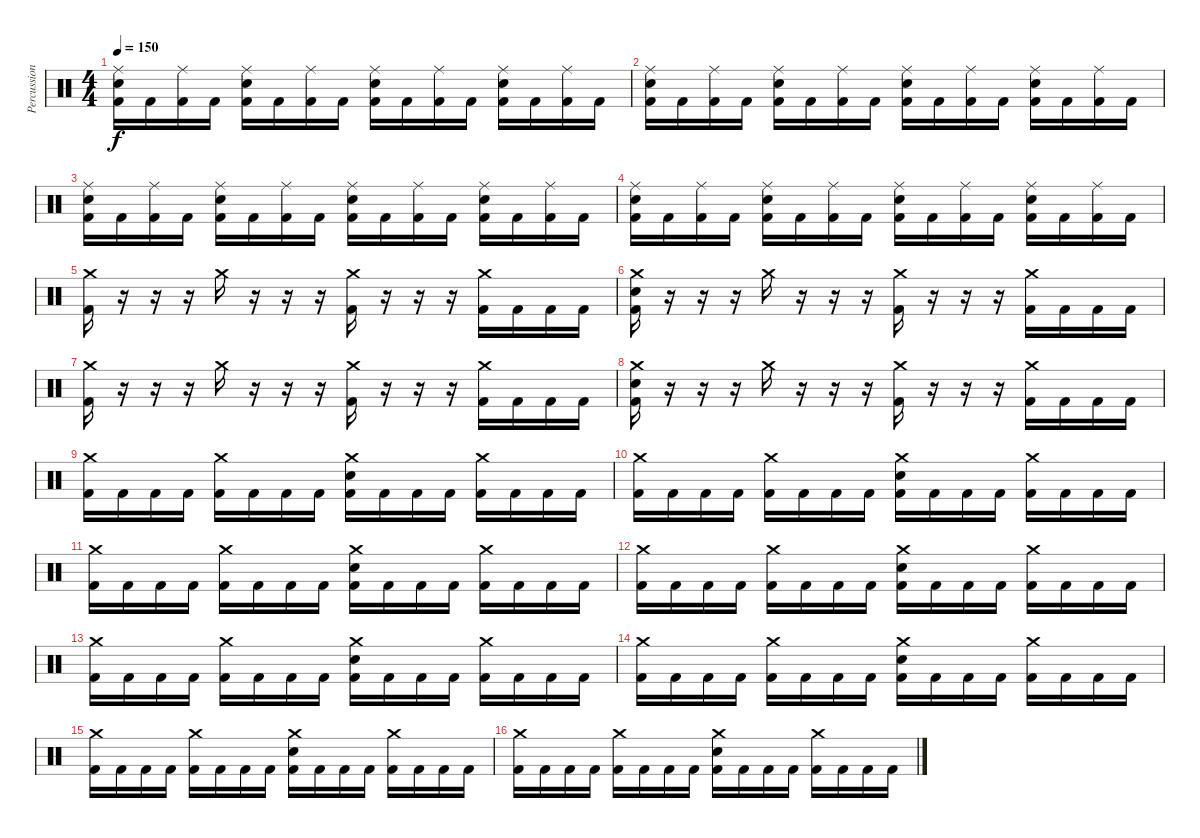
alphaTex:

\track ("Percussion" "Percussion") {instrument percussion}
\staff {score}
\articulation defaults
\ts (4 4)
\tempo 150
\clef neutral
\ks c
("Ride (middle)" "Electric Snare (hit)" "Kick (hit) 2").16{dy f} "Kick (hit) 2".16 ("Ride (middle)" "Kick (hit) 2").16 "Kick (hit) 2".16 ("Ride (middle)" "Electric Snare (hit)" "Kick (hit) 2").16 "Kick (hit) 2".16 ("Ride (middle)" "Kick (hit) 2").16 "Kick (hit) 2".16 ("Ride (middle)" "Electric Snare (hit)" "Kick (hit) 2").16 "Kick (hit) 2".16 ("Ride (middle)" "Kick (hit) 2").16 "Kick (hit) 2".16 ("Ride (middle)" "Electric Snare (hit)" "Kick (hit) 2").16 "Kick (hit) 2".16 ("Ride (middle)" "Kick (hit) 2").16 "Kick (hit) 2".16 |
("Ride (middle)" "Electric Snare (hit)" "Kick (hit) 2").16 "Kick (hit) 2".16 ("Ride (middle)" "Kick (hit) 2").16 "Kick (hit) 2".16 ("Ride (middle)" "Electric Snare (hit)" "Kick (hit) 2").16 "Kick (hit) 2".16 ("Ride (middle)" "Kick (hit) 2").16 "Kick (hit) 2".16 ("Ride (middle)" "Electric Snare (hit)" "Kick (hit) 2").16 "Kick (hit) 2".16 ("Ride (middle)" "Kick (hit) 2").16 "Kick (hit) 2".16 ("Ride (middle)" "Electric Snare (hit)" "Kick (hit) 2").16 "Kick (hit) 2".16 ("Ride (middle)" "Kick (hit) 2").16 "Kick (hit) 2".16 |
("Ride (middle)" "Electric Snare (hit)" "Kick (hit) 2").16 "Kick (hit) 2".16 ("Ride (middle)" "Kick (hit) 2").16 "Kick (hit) 2".16 ("Ride (middle)" "Electric Snare (hit)" "Kick (hit) 2").16 "Kick (hit) 2".16 ("Ride (middle)" "Kick (hit) 2").16 "Kick (hit) 2".16 ("Ride (middle)" "Electric Snare (hit)" "Kick (hit) 2").16 "Kick (hit) 2".16 ("Ride (middle)" "Kick (hit) 2").16 "Kick (hit) 2".16 ("Ride (middle)" "Electric Snare (hit)" "Kick (hit) 2").16 "Kick (hit) 2".16 ("Ride (middle)" "Kick (hit) 2").16 "Kick (hit) 2".16 |
("Ride (middle)" "Electric Snare (hit)" "Kick (hit) 2").16 "Kick (hit) 2".16 ("Ride (middle)" "Kick (hit) 2").16 "Kick (hit) 2".16 ("Ride (middle)" "Electric Snare (hit)" "Kick (hit) 2").16 "Kick (hit) 2".16 ("Ride (middle)" "Kick (hit) 2").16 "Kick (hit) 2".16 ("Ride (middle)" "Electric Snare (hit)" "Kick (hit) 2").16 "Kick (hit) 2".16 ("Ride (middle)" "Kick (hit) 2").16 "Kick (hit) 2".16 ("Ride (middle)" "Electric Snare (hit)" "Kick (hit) 2").16 "Kick (hit) 2".16 ("Ride (middle)" "Kick (hit) 2").16 "Kick (hit) 2".16 |
("Crash medium (hit)" "Kick (hit) 2").16 r.16 r.16 r.16 "Crash medium (hit)".16 r.16 r.16 r.16 ("Crash medium (hit)" "Kick (hit) 2").16 r.16 r.16 r.16 ("Crash medium (hit)" "Kick (hit) 2").16 "Kick (hit) 2".16 "Kick (hit) 2".16 "Kick (hit) 2".16 |
("Crash medium (hit)" "Electric Snare (hit)" "Kick (hit) 2").16 r.16 r.16 r.16 "Crash medium (hit)".16 r.16 r.16 r.16 ("Crash medium (hit)" "Kick (hit) 2").16 r.16 r.16 r.16 ("Crash medium (hit)" "Kick (hit) 2").16 "Kick (hit) 2".16 "Kick (hit) 2".16 "Kick (hit) 2".16 |
("Crash medium (hit)" "Kick (hit) 2").16 r.16 r.16 r.16 "Crash medium (hit)".16 r.16 r.16 r.16 ("Crash medium (hit)" "Kick (hit) 2").16 r.16 r.16 r.16 ("Crash medium (hit)" "Kick (hit) 2").16 "Kick (hit) 2".16 "Kick (hit) 2".16 "Kick (hit) 2".16 |
("Crash medium (hit)" "Electric Snare (hit)" "Kick (hit) 2").16 r.16 r.16 r.16 "Crash medium (hit)".16 r.16 r.16 r.16 ("Crash medium (hit)" "Kick (hit) 2").16 r.16 r.16 r.16 ("Crash medium (hit)" "Kick (hit) 2").16 "Kick (hit) 2".16 "Kick (hit) 2".16 "Kick (hit) 2".16 |
("Crash medium (hit)" "Kick (hit) 2").16 "Kick (hit) 2".16 "Kick (hit) 2".16 "Kick (hit) 2".16 ("Crash medium (hit)" "Kick (hit) 2").16 "Kick (hit) 2".16 "Kick (hit) 2".16 "Kick (hit) 2".16 ("Crash medium (hit)" "Electric Snare (hit)" "Kick (hit) 2").16 "Kick (hit) 2".16 "Kick (hit) 2".16 "Kick (hit) 2".16 ("Crash medium (hit)" "Kick (hit) 2").16 "Kick (hit) 2".16 "Kick (hit) 2".16 "Kick (hit) 2".16 |
("Crash medium (hit)" "Kick (hit) 2").16 "Kick (hit) 2".16 "Kick (hit) 2".16 "Kick (hit) 2".16 ("Crash medium (hit)" "Kick (hit) 2").16 "Kick (hit) 2".16 "Kick (hit) 2".16 "Kick (hit) 2".16 ("Crash medium (hit)" "Electric Snare (hit)" "Kick (hit) 2").16 "Kick (hit) 2".16 "Kick (hit) 2".16 "Kick (hit) 2".16 ("Crash medium (hit)" "Kick (hit) 2").16 "Kick (hit) 2".16 "Kick (hit) 2".16 "Kick (hit) 2".16 |
("Crash medium (hit)" "Kick (hit) 2").16 "Kick (hit) 2".16 "Kick (hit) 2".16 "Kick (hit) 2".16 ("Crash medium (hit)" "Kick (hit) 2").16 "Kick (hit) 2".16 "Kick (hit) 2".16 "Kick (hit) 2".16 ("Crash medium (hit)" "Electric Snare (hit)" "Kick (hit) 2").16 "Kick (hit) 2".16 "Kick (hit) 2".16 "Kick (hit) 2".16 ("Crash medium (hit)" "Kick (hit) 2").16 "Kick (hit) 2".16 "Kick (hit) 2".16 "Kick (hit) 2".16 |
("Crash medium (hit)" "Kick (hit) 2").16 "Kick (hit) 2".16 "Kick (hit) 2".16 "Kick (hit) 2".16 ("Crash medium (hit)" "Kick (hit) 2").16 "Kick (hit) 2".16 "Kick (hit) 2".16 "Kick (hit) 2".16 ("Crash medium (hit)" "Electric Snare (hit)" "Kick (hit) 2").16 "Kick (hit) 2".16 "Kick (hit) 2".16 "Kick (hit) 2".16 ("Crash medium (hit)" "Kick (hit) 2").16 "Kick (hit) 2".16 "Kick (hit) 2".16 "Kick (hit) 2".16 |
("Crash medium (hit)" "Kick (hit) 2").16 "Kick (hit) 2".16 "Kick (hit) 2".16 "Kick (hit) 2".16 ("Crash medium (hit)" "Kick (hit) 2").16 "Kick (hit) 2".16 "Kick (hit) 2".16 "Kick (hit) 2".16 ("Crash medium (hit)" "Electric Snare (hit)" "Kick (hit) 2").16 "Kick (hit) 2".16 "Kick (hit) 2".16 "Kick (hit) 2".16 ("Crash medium (hit)" "Kick (hit) 2").16 "Kick (hit) 2".16 "Kick (hit) 2".16 "Kick (hit) 2".16 |
("Crash medium (hit)" "Kick (hit) 2").16 "Kick (hit) 2".16 "Kick (hit) 2".16 "Kick (hit) 2".16 ("Crash medium (hit)" "Kick (hit) 2").16 "Kick (hit) 2".16 "Kick (hit) 2".16 "Kick (hit) 2".16 ("Crash medium (hit)" "Electric Snare (hit)" "Kick (hit) 2").16 "Kick (hit) 2".16 "Kick (hit) 2".16 "Kick (hit) 2".16 ("Crash medium (hit)" "Kick (hit) 2").16 "Kick (hit) 2".16 "Kick (hit) 2".16 "Kick (hit) 2".16 |
("Crash medium (hit)" "Kick (hit) 2").16 "Kick (hit) 2".16 "Kick (hit) 2".16 "Kick (hit) 2".16 ("Crash medium (hit)" "Kick (hit) 2").16 "Kick (hit) 2".16 "Kick (hit) 2".16 "Kick (hit) 2".16 ("Crash medium (hit)" "Electric Snare (hit)" "Kick (hit) 2").16 "Kick (hit) 2".16 "Kick (hit) 2".16 "Kick (hit) 2".16 ("Crash medium (hit)" "Kick (hit) 2").16 "Kick (hit) 2".16 "Kick (hit) 2".16 "Kick (hit) 2".16 |
("Crash medium (hit)" "Kick (hit) 2").16 "Kick (hit) 2".16 "Kick (hit) 2".16 "Kick (hit) 2".16 ("Crash medium (hit)" "Kick (hit) 2").16 "Kick (hit) 2".16 "Kick (hit) 2".16 "Kick (hit) 2".16 ("Crash medium (hit)" "Electric Snare (hit)" "Kick (hit) 2").16 "Kick (hit) 2".16 "Kick (hit) 2".16 "Kick (hit) 2".16 ("Crash medium (hit)" "Kick (hit) 2").16 "Kick (hit) 2".16 "Kick (hit) 2".16 "Kick (hit) 2".16
